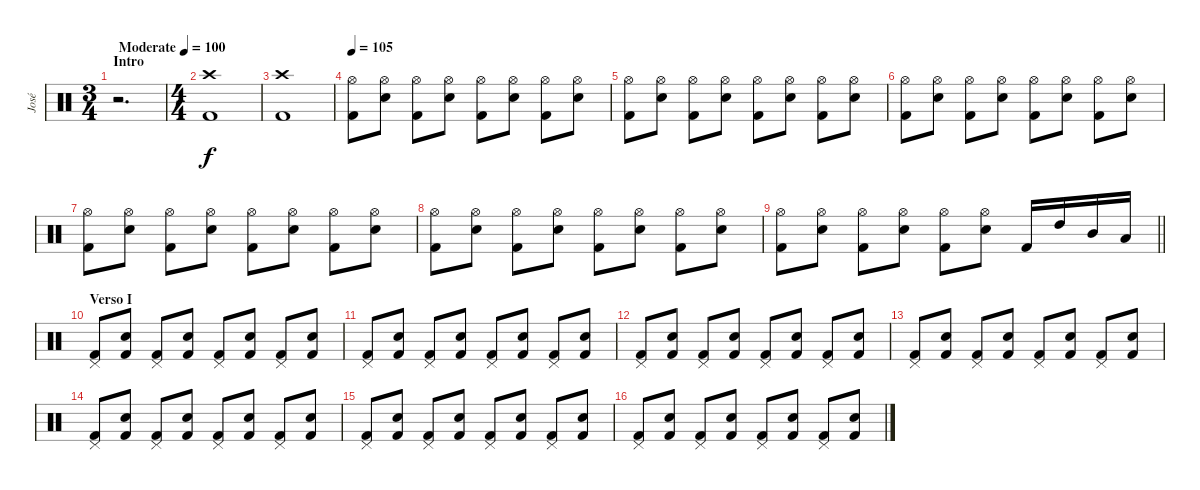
\track ("José" "José") {instrument percussion}
\staff
\articulation defaults
\ts (3 4)
\section ("" "Intro")
\tempo (100 "Moderate")
\clef neutral
\ks c
r.2{d dy f} |
\ts (4 4)
("Crash high (hit)" "Kick (hit) 2").1 |
("Crash high (hit)" "Kick (hit) 2").1 |
\tempo 105
("Hi-Hat (open)" "Kick (hit) 2").8 ("Hi-Hat (open)" "Electric Snare (hit)").8 ("Hi-Hat (open)" "Kick (hit) 2").8 ("Hi-Hat (open)" "Electric Snare (hit)").8 ("Hi-Hat (open)" "Kick (hit) 2").8 ("Hi-Hat (open)" "Electric Snare (hit)").8 ("Hi-Hat (open)" "Kick (hit) 2").8 ("Hi-Hat (open)" "Electric Snare (hit)").8 |
("Hi-Hat (open)" "Kick (hit) 2").8 ("Hi-Hat (open)" "Electric Snare (hit)").8 ("Hi-Hat (open)" "Kick (hit) 2").8 ("Hi-Hat (open)" "Electric Snare (hit)").8 ("Hi-Hat (open)" "Kick (hit) 2").8 ("Hi-Hat (open)" "Electric Snare (hit)").8 ("Hi-Hat (open)" "Kick (hit) 2").8 ("Hi-Hat (open)" "Electric Snare (hit)").8 |
("Hi-Hat (open)" "Kick (hit) 2").8 ("Hi-Hat (open)" "Electric Snare (hit)").8 ("Hi-Hat (open)" "Kick (hit) 2").8 ("Hi-Hat (open)" "Electric Snare (hit)").8 ("Hi-Hat (open)" "Kick (hit) 2").8 ("Hi-Hat (open)" "Electric Snare (hit)").8 ("Hi-Hat (open)" "Kick (hit) 2").8 ("Hi-Hat (open)" "Electric Snare (hit)").8 |
("Hi-Hat (open)" "Kick (hit) 2").8 ("Hi-Hat (open)" "Electric Snare (hit)").8 ("Hi-Hat (open)" "Kick (hit) 2").8 ("Hi-Hat (open)" "Electric Snare (hit)").8 ("Hi-Hat (open)" "Kick (hit) 2").8 ("Hi-Hat (open)" "Electric Snare (hit)").8 ("Hi-Hat (open)" "Kick (hit) 2").8 ("Hi-Hat (open)" "Electric Snare (hit)").8 |
("Hi-Hat (open)" "Kick (hit) 2").8 ("Hi-Hat (open)" "Electric Snare (hit)").8 ("Hi-Hat (open)" "Kick (hit) 2").8 ("Hi-Hat (open)" "Electric Snare (hit)").8 ("Hi-Hat (open)" "Kick (hit) 2").8 ("Hi-Hat (open)" "Electric Snare (hit)").8 ("Hi-Hat (open)" "Kick (hit) 2").8 ("Hi-Hat (open)" "Electric Snare (hit)").8 |
\barLineRight lightlight
("Hi-Hat (open)" "Kick (hit) 2").8 ("Hi-Hat (open)" "Electric Snare (hit)").8 ("Hi-Hat (open)" "Kick (hit) 2").8 ("Hi-Hat (open)" "Electric Snare (hit)").8 ("Hi-Hat (open)" "Kick (hit) 2").8 ("Hi-Hat (open)" "Electric Snare (hit)").8 "Kick (hit) 2".16 "High Tom (hit)".16 "Mid Tom (hit)".16 "Low Tom (hit)".16 |
\section ("" "Verso I")
("Pedal Hi-Hat (hit)" "Kick (hit) 2").8 ("Electric Snare (hit)" "Kick (hit) 2").8 ("Pedal Hi-Hat (hit)" "Kick (hit) 2").8 ("Electric Snare (hit)" "Kick (hit) 2").8 ("Pedal Hi-Hat (hit)" "Kick (hit) 2").8 ("Electric Snare (hit)" "Kick (hit) 2").8 ("Pedal Hi-Hat (hit)" "Kick (hit) 2").8 ("Electric Snare (hit)" "Kick (hit) 2").8 |
("Pedal Hi-Hat (hit)" "Kick (hit) 2").8 ("Electric Snare (hit)" "Kick (hit) 2").8 ("Pedal Hi-Hat (hit)" "Kick (hit) 2").8 ("Electric Snare (hit)" "Kick (hit) 2").8 ("Pedal Hi-Hat (hit)" "Kick (hit) 2").8 ("Electric Snare (hit)" "Kick (hit) 2").8 ("Pedal Hi-Hat (hit)" "Kick (hit) 2").8 ("Electric Snare (hit)" "Kick (hit) 2").8 |
("Pedal Hi-Hat (hit)" "Kick (hit) 2").8 ("Electric Snare (hit)" "Kick (hit) 2").8 ("Pedal Hi-Hat (hit)" "Kick (hit) 2").8 ("Electric Snare (hit)" "Kick (hit) 2").8 ("Pedal Hi-Hat (hit)" "Kick (hit) 2").8 ("Electric Snare (hit)" "Kick (hit) 2").8 ("Pedal Hi-Hat (hit)" "Kick (hit) 2").8 ("Electric Snare (hit)" "Kick (hit) 2").8 |
("Pedal Hi-Hat (hit)" "Kick (hit) 2").8 ("Electric Snare (hit)" "Kick (hit) 2").8 ("Pedal Hi-Hat (hit)" "Kick (hit) 2").8 ("Electric Snare (hit)" "Kick (hit) 2").8 ("Pedal Hi-Hat (hit)" "Kick (hit) 2").8 ("Electric Snare (hit)" "Kick (hit) 2").8 ("Pedal Hi-Hat (hit)" "Kick (hit) 2").8 ("Electric Snare (hit)" "Kick (hit) 2").8 |
("Pedal Hi-Hat (hit)" "Kick (hit) 2").8 ("Electric Snare (hit)" "Kick (hit) 2").8 ("Pedal Hi-Hat (hit)" "Kick (hit) 2").8 ("Electric Snare (hit)" "Kick (hit) 2").8 ("Pedal Hi-Hat (hit)" "Kick (hit) 2").8 ("Electric Snare (hit)" "Kick (hit) 2").8 ("Pedal Hi-Hat (hit)" "Kick (hit) 2").8 ("Electric Snare (hit)" "Kick (hit) 2").8 |
("Pedal Hi-Hat (hit)" "Kick (hit) 2").8 ("Electric Snare (hit)" "Kick (hit) 2").8 ("Pedal Hi-Hat (hit)" "Kick (hit) 2").8 ("Electric Snare (hit)" "Kick (hit) 2").8 ("Pedal Hi-Hat (hit)" "Kick (hit) 2").8 ("Electric Snare (hit)" "Kick (hit) 2").8 ("Pedal Hi-Hat (hit)" "Kick (hit) 2").8 ("Electric Snare (hit)" "Kick (hit) 2").8 |
("Pedal Hi-Hat (hit)" "Kick (hit) 2").8 ("Electric Snare (hit)" "Kick (hit) 2").8 ("Pedal Hi-Hat (hit)" "Kick (hit) 2").8 ("Electric Snare (hit)" "Kick (hit) 2").8 ("Pedal Hi-Hat (hit)" "Kick (hit) 2").8 ("Electric Snare (hit)" "Kick (hit) 2").8 ("Pedal Hi-Hat (hit)" "Kick (hit) 2").8 ("Electric Snare (hit)" "Kick (hit) 2").8
